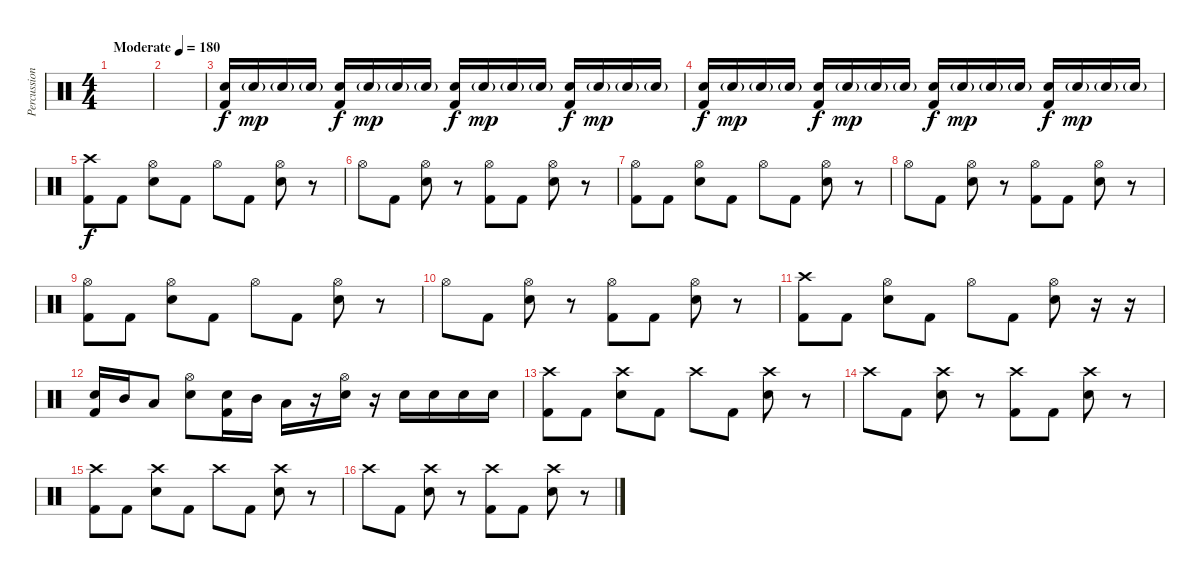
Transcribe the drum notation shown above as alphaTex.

\track ("Percussion" "Percussion") {instrument percussion}
\staff {score}
\articulation defaults
\ts (4 4)
\tempo (180 "Moderate")
\clef neutral
\ks c
|
|
("Snare (hit) 2" "Kick (hit) 2").16 "Snare (hit) 2"{g}.16{dy mp} "Snare (hit) 2"{g}.16 "Snare (hit) 2"{g}.16 ("Snare (hit) 2" "Kick (hit) 2").16{dy f} "Snare (hit) 2"{g}.16{dy mp} "Snare (hit) 2"{g}.16 "Snare (hit) 2"{g}.16 ("Snare (hit) 2" "Kick (hit) 2").16{dy f} "Snare (hit) 2"{g}.16{dy mp} "Snare (hit) 2"{g}.16 "Snare (hit) 2"{g}.16 ("Snare (hit) 2" "Kick (hit) 2").16{dy f} "Snare (hit) 2"{g}.16{dy mp} "Snare (hit) 2"{g}.16 "Snare (hit) 2"{g}.16 |
("Snare (hit) 2" "Kick (hit) 2").16{dy f} "Snare (hit) 2"{g}.16{dy mp} "Snare (hit) 2"{g}.16 "Snare (hit) 2"{g}.16 ("Snare (hit) 2" "Kick (hit) 2").16{dy f} "Snare (hit) 2"{g}.16{dy mp} "Snare (hit) 2"{g}.16 "Snare (hit) 2"{g}.16 ("Snare (hit) 2" "Kick (hit) 2").16{dy f} "Snare (hit) 2"{g}.16{dy mp} "Snare (hit) 2"{g}.16 "Snare (hit) 2"{g}.16 ("Snare (hit) 2" "Kick (hit) 2").16{dy f} "Snare (hit) 2"{g}.16{dy mp} "Snare (hit) 2"{g}.16 "Snare (hit) 2"{g}.16 |
("Crash high (hit)" "Kick (hit) 2").8{dy f} "Kick (hit) 2".8 ("Hi-Hat (open)" "Snare (hit) 2").8 "Kick (hit) 2".8 "Hi-Hat (open)".8 "Kick (hit) 2".8 ("Hi-Hat (open)" "Snare (hit) 2").8 r.8 |
"Hi-Hat (open)".8 "Kick (hit) 2".8 ("Hi-Hat (open)" "Snare (hit) 2").8 r.8 ("Hi-Hat (open)" "Kick (hit) 2").8 "Kick (hit) 2".8 ("Hi-Hat (open)" "Snare (hit) 2").8 r.8 |
("Hi-Hat (open)" "Kick (hit) 2").8 "Kick (hit) 2".8 ("Hi-Hat (open)" "Snare (hit) 2").8 "Kick (hit) 2".8 "Hi-Hat (open)".8 "Kick (hit) 2".8 ("Hi-Hat (open)" "Snare (hit) 2").8 r.8 |
"Hi-Hat (open)".8 "Kick (hit) 2".8 ("Hi-Hat (open)" "Snare (hit) 2").8 r.8 ("Hi-Hat (open)" "Kick (hit) 2").8 "Kick (hit) 2".8 ("Hi-Hat (open)" "Snare (hit) 2").8 r.8 |
("Hi-Hat (open)" "Kick (hit) 2").8 "Kick (hit) 2".8 ("Hi-Hat (open)" "Snare (hit) 2").8 "Kick (hit) 2".8 "Hi-Hat (open)".8 "Kick (hit) 2".8 ("Hi-Hat (open)" "Snare (hit) 2").8 r.8 |
"Hi-Hat (open)".8 "Kick (hit) 2".8 ("Hi-Hat (open)" "Snare (hit) 2").8 r.8 ("Hi-Hat (open)" "Kick (hit) 2").8 "Kick (hit) 2".8 ("Hi-Hat (open)" "Snare (hit) 2").8 r.8 |
("Crash high (hit)" "Kick (hit) 2").8 "Kick (hit) 2".8 ("Hi-Hat (open)" "Snare (hit) 2").8 "Kick (hit) 2".8 "Hi-Hat (open)".8 "Kick (hit) 2".8 ("Hi-Hat (open)" "Snare (hit) 2").8 r.16 r.16 |
("Snare (hit) 2" "Kick (hit) 2").16 "Mid Tom (hit)".16 "Low Tom (hit)".8 ("Hi-Hat (open)" "Snare (hit) 2").8 ("Snare (hit) 2" "Kick (hit) 2").16 "Mid Tom (hit)".16 "Low Tom (hit)".16 r.16 ("Hi-Hat (open)" "Snare (hit) 2").16 r.16 "Snare (hit) 2".16 "Snare (hit) 2".16 "Snare (hit) 2".16 "Snare (hit) 2".16 |
("Crash high (hit)" "Kick (hit) 2").8 "Kick (hit) 2".8 ("Crash high (hit)" "Snare (hit) 2").8 "Kick (hit) 2".8 "Crash high (hit)".8 "Kick (hit) 2".8 ("Crash high (hit)" "Snare (hit) 2").8 r.8 |
"Crash high (hit)".8 "Kick (hit) 2".8 ("Crash high (hit)" "Snare (hit) 2").8 r.8 ("Crash high (hit)" "Kick (hit) 2").8 "Kick (hit) 2".8 ("Crash high (hit)" "Snare (hit) 2").8 r.8 |
("Crash high (hit)" "Kick (hit) 2").8 "Kick (hit) 2".8 ("Crash high (hit)" "Snare (hit) 2").8 "Kick (hit) 2".8 "Crash high (hit)".8 "Kick (hit) 2".8 ("Crash high (hit)" "Snare (hit) 2").8 r.8 |
"Crash high (hit)".8 "Kick (hit) 2".8 ("Crash high (hit)" "Snare (hit) 2").8 r.8 ("Crash high (hit)" "Kick (hit) 2").8 "Kick (hit) 2".8 ("Crash high (hit)" "Snare (hit) 2").8 r.8
